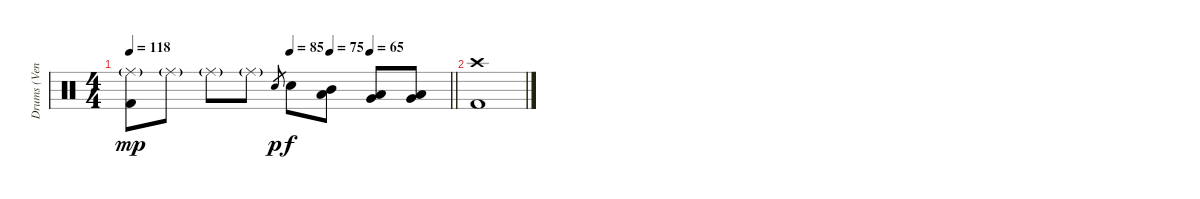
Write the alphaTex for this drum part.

\track ("Drums (Ventor)" "Drums (Ven") {instrument percussion}
\staff {score}
\articulation defaults
\ts (4 4)
\tempo 118
\tempo (85 0.5)
\tempo (75 0.625)
\tempo (65 0.75)
\clef neutral
\barLineRight lightlight
\ks c
("Ride (middle)"{g} "Kick (hit) 2").8{dy mp} "Ride (middle)"{g}.8 "Ride (middle)"{g}.8 "Ride (middle)"{g}.8 "Electric Snare (hit)".8{gr dy p} "Electric Snare (hit)".8{dy f} ("Mid Tom (hit)" "Low Tom (hit)").8 ("Low Tom (hit)" "Very Low Tom (hit)").8 ("Very Low Tom (hit)" "Low Floor Tom (hit)").8 |
("Crash high (hit)" "Kick (hit) 2").1
